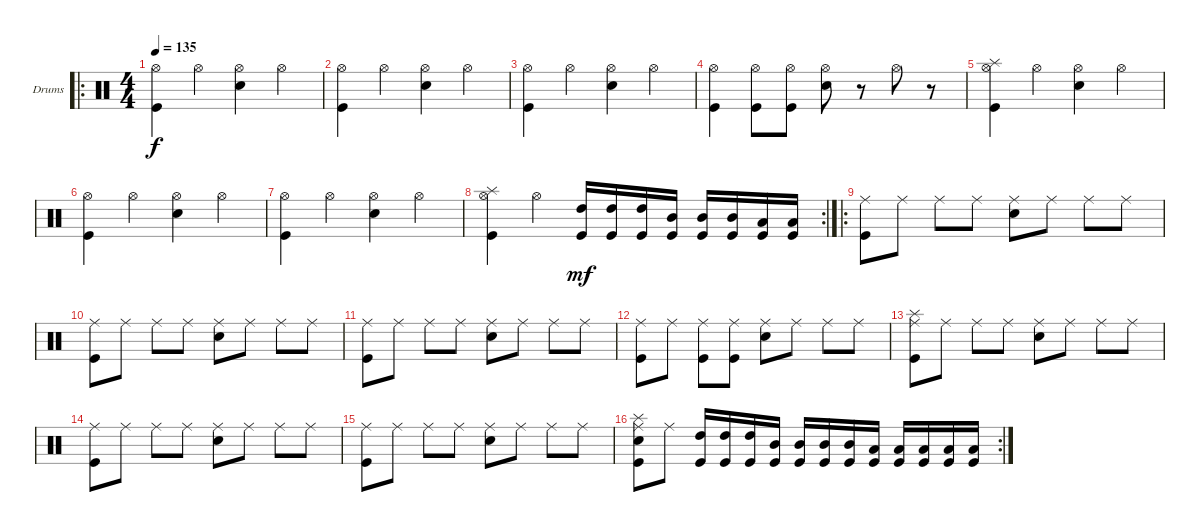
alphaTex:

\defaultSystemsLayout 4
\bracketExtendMode groupsimilarinstruments
\firstSystemTrackNameOrientation horizontal
\otherSystemsTrackNameOrientation horizontal
\track ("Drums" "Drums") {instrument percussion}
\staff {score}
\articulation defaults
\ro
\ts (4 4)
\tempo 135
\clef neutral
\scale
0.472222
\ks c
("Hi-Hat (open)" "Kick (hit)").4{dy f} "Hi-Hat (open)".4 ("Hi-Hat (open)" "Snare (hit) 2").4 "Hi-Hat (open)".4 |
\scale
0.263889 ("Hi-Hat (open)" "Kick (hit)").4 "Hi-Hat (open)".4 ("Hi-Hat (open)" "Snare (hit) 2").4 "Hi-Hat (open)".4 |
\scale
0.263889 ("Hi-Hat (open)" "Kick (hit)").4 "Hi-Hat (open)".4 ("Hi-Hat (open)" "Snare (hit) 2").4 "Hi-Hat (open)".4 |
\scale
0.333333 ("Hi-Hat (open)" "Kick (hit)").4 ("Hi-Hat (open)" "Kick (hit)").8 ("Hi-Hat (open)" "Kick (hit)").8 ("Hi-Hat (open)" "Snare (hit) 2").8 r.8 "Hi-Hat (open)".8 r.8 |
\scale
0.333333 ("Hi-Hat (open)" "Kick (hit)" "Splash (hit)").4 "Hi-Hat (open)".4 ("Hi-Hat (open)" "Snare (hit) 2").4 "Hi-Hat (open)".4 |
\scale
0.333333 ("Hi-Hat (open)" "Kick (hit)").4 "Hi-Hat (open)".4 ("Hi-Hat (open)" "Snare (hit) 2").4 "Hi-Hat (open)".4 |
("Hi-Hat (open)" "Kick (hit)").4 "Hi-Hat (open)".4 ("Hi-Hat (open)" "Snare (hit) 2").4 "Hi-Hat (open)".4 |
\rc 2
("Hi-Hat (open)" "Kick (hit)" "Splash (hit)").4 "Hi-Hat (open)".4 ("Kick (hit)" "High Tom (hit)").16{dy mf} ("Kick (hit)" "High Tom (hit)").16 ("Kick (hit)" "High Tom (hit)").16 ("Kick (hit)" "Mid Tom (hit)").16 ("Kick (hit)" "Mid Tom (hit)").16 ("Kick (hit)" "Mid Tom (hit)").16 ("Kick (hit)" "Low Tom (hit)").16 ("Kick (hit)" "Low Tom (hit)").16 |
\ro
("Kick (hit)" "Ride (middle)").8 "Ride (middle)".8 "Ride (middle)".8 "Ride (middle)".8 ("Snare (hit) 2" "Ride (middle)").8 "Ride (middle)".8 "Ride (middle)".8 "Ride (middle)".8 |
("Kick (hit)" "Ride (middle)").8 "Ride (middle)".8 "Ride (middle)".8 "Ride (middle)".8 ("Snare (hit) 2" "Ride (middle)").8 "Ride (middle)".8 "Ride (middle)".8 "Ride (middle)".8 |
("Kick (hit)" "Ride (middle)").8 "Ride (middle)".8 "Ride (middle)".8 "Ride (middle)".8 ("Snare (hit) 2" "Ride (middle)").8 "Ride (middle)".8 "Ride (middle)".8 "Ride (middle)".8 |
("Kick (hit)" "Ride (middle)").8 "Ride (middle)".8 ("Ride (middle)" "Kick (hit)").8 ("Ride (middle)" "Kick (hit)").8 ("Ride (middle)" "Snare (hit) 2").8 "Ride (middle)".8 "Ride (middle)".8 "Ride (middle)".8 |
("Kick (hit)" "Ride (middle)" "Splash (hit)").8 "Ride (middle)".8 "Ride (middle)".8 "Ride (middle)".8 ("Snare (hit) 2" "Ride (middle)").8 "Ride (middle)".8 "Ride (middle)".8 "Ride (middle)".8 |
("Kick (hit)" "Ride (middle)").8 "Ride (middle)".8 "Ride (middle)".8 "Ride (middle)".8 ("Snare (hit) 2" "Ride (middle)").8 "Ride (middle)".8 "Ride (middle)".8 "Ride (middle)".8 |
("Kick (hit)" "Ride (middle)").8 "Ride (middle)".8 "Ride (middle)".8 "Ride (middle)".8 ("Snare (hit) 2" "Ride (middle)").8 "Ride (middle)".8 "Ride (middle)".8 "Ride (middle)".8 |
\rc 2
("Kick (hit)" "Ride (middle)" "Snare (hit) 2" "Splash (hit)").8 "Ride (middle)".8 ("Kick (hit)" "High Tom (hit)").16 ("Kick (hit)" "High Tom (hit)").16 ("Kick (hit)" "High Tom (hit)").16 ("Kick (hit)" "Mid Tom (hit)").16 ("Kick (hit)" "Mid Tom (hit)").16 ("Kick (hit)" "Mid Tom (hit)").16 ("Kick (hit)" "Mid Tom (hit)").16 ("Kick (hit)" "Low Tom (hit)").16 ("Kick (hit)" "Low Tom (hit)").16 ("Kick (hit)" "Low Tom (hit)").16 ("Kick (hit)" "Low Tom (hit)").16 ("Kick (hit)" "Low Tom (hit)").16
